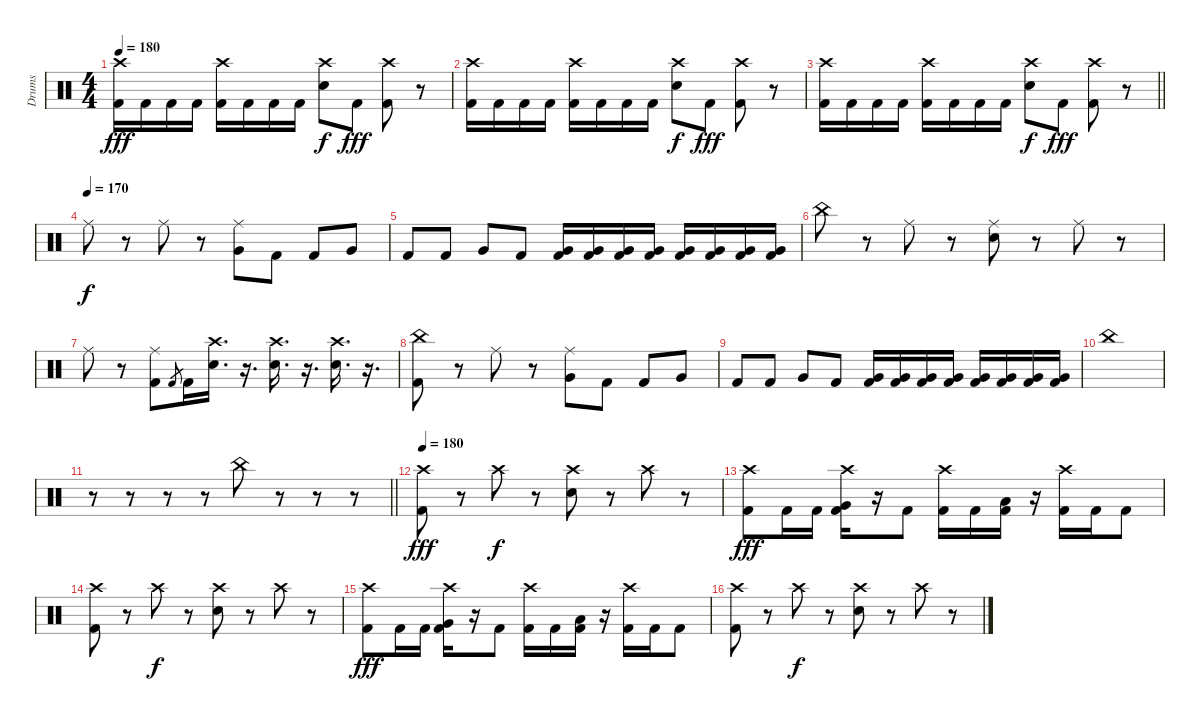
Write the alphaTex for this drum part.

\track ("Drums" "Drums") {instrument percussion}
\staff {score}
\articulation defaults
\ts (4 4)
\tempo 180
\clef neutral
\ks c
("Crash high (hit)" "Kick (hit) 2").16{dy fff} "Kick (hit) 2".16 "Kick (hit) 2".16 "Kick (hit) 2".16 ("Crash high (hit)" "Kick (hit) 2").16 "Kick (hit) 2".16 "Kick (hit) 2".16 "Kick (hit) 2".16 ("Crash high (hit)" "Electric Snare (hit)").8{dy f} "Kick (hit) 2".8{dy fff} ("Crash high (hit)" "Kick (hit) 2").8 r.8 |
("Crash high (hit)" "Kick (hit) 2").16 "Kick (hit) 2".16 "Kick (hit) 2".16 "Kick (hit) 2".16 ("Crash high (hit)" "Kick (hit) 2").16 "Kick (hit) 2".16 "Kick (hit) 2".16 "Kick (hit) 2".16 ("Crash high (hit)" "Electric Snare (hit)").8{dy f} "Kick (hit) 2".8{dy fff} ("Crash high (hit)" "Kick (hit) 2").8 r.8 |
\barLineRight lightlight
("Crash high (hit)" "Kick (hit) 2").16 "Kick (hit) 2".16 "Kick (hit) 2".16 "Kick (hit) 2".16 ("Crash high (hit)" "Kick (hit) 2").16 "Kick (hit) 2".16 "Kick (hit) 2".16 "Kick (hit) 2".16 ("Crash high (hit)" "Electric Snare (hit)").8{dy f} "Kick (hit) 2".8{dy fff} ("Crash high (hit)" "Kick (hit) 2").8 r.8 |
\section ("" "")
\tempo (170)
"Ride (middle)".8{dy f} r.8 "Ride (middle)".8 r.8 ("Ride (middle)" "Very Low Tom (hit)").8 "Kick (hit) 2".8 "Kick (hit) 2".8 "Very Low Tom (hit)".8 |
"Kick (hit) 2".8 "Kick (hit) 2".8 "Very Low Tom (hit)".8 "Kick (hit) 2".8 ("Very Low Tom (hit)" "Kick (hit) 2").16 ("Very Low Tom (hit)" "Kick (hit) 2").16 ("Very Low Tom (hit)" "Kick (hit) 2").16 ("Very Low Tom (hit)" "Kick (hit) 2").16 ("Very Low Tom (hit)" "Kick (hit) 2").16 ("Very Low Tom (hit)" "Kick (hit) 2").16 ("Very Low Tom (hit)" "Kick (hit) 2").16 ("Very Low Tom (hit)" "Kick (hit) 2").16 |
"China (hit)".8 r.8 "Ride (middle)".8 r.8 ("Ride (middle)" "Electric Snare (hit)").8 r.8 "Ride (middle)".8 r.8 |
"Ride (middle)".8 r.8 ("Ride (middle)" "Kick (hit) 2").8 "Kick (hit) 2".8{gr} "Kick (hit) 2".16 ("Crash high (hit)" "Electric Snare (hit)").16{d} r.16{d} ("Crash high (hit)" "Electric Snare (hit)").16{d} r.16{d} ("Crash high (hit)" "Electric Snare (hit)").16{d} r.16{d} |
("China (hit)" "Kick (hit) 2").8 r.8 "Ride (middle)".8 r.8 ("Ride (middle)" "Very Low Tom (hit)").8 "Kick (hit) 2".8 "Kick (hit) 2".8 "Very Low Tom (hit)".8 |
"Kick (hit) 2".8 "Kick (hit) 2".8 "Very Low Tom (hit)".8 "Kick (hit) 2".8 ("Very Low Tom (hit)" "Kick (hit) 2").16 ("Very Low Tom (hit)" "Kick (hit) 2").16 ("Very Low Tom (hit)" "Kick (hit) 2").16 ("Very Low Tom (hit)" "Kick (hit) 2").16 ("Very Low Tom (hit)" "Kick (hit) 2").16 ("Very Low Tom (hit)" "Kick (hit) 2").16 ("Very Low Tom (hit)" "Kick (hit) 2").16 ("Very Low Tom (hit)" "Kick (hit) 2").16 |
"China (hit)".1 |
\barLineRight lightlight
r.8 r.8 r.8 r.8 "China (hit)".8 r.8 r.8 r.8 |
\section ("" "")
\tempo 180
("Crash high (hit)" "Kick (hit) 2").8{dy fff volume 12} r.8 "Crash high (hit)".8{dy f} r.8 ("Crash high (hit)" "Electric Snare (hit)").8 r.8 "Crash high (hit)".8 r.8 |
("Crash high (hit)" "Kick (hit) 2").8{dy fff} "Kick (hit) 2".16 "Kick (hit) 2".16 ("Crash high (hit)" "Very Low Tom (hit)" "Kick (hit) 2").16 r.16 "Kick (hit) 2".8 ("Crash high (hit)" "Kick (hit) 2").16 "Kick (hit) 2".16 ("Low Floor Tom (hit)" "Kick (hit) 2").16 r.16 ("Crash high (hit)" "Kick (hit) 2").16 "Kick (hit) 2".16 "Kick (hit) 2".8 |
("Crash high (hit)" "Kick (hit) 2").8 r.8 "Crash high (hit)".8{dy f} r.8 ("Crash high (hit)" "Electric Snare (hit)").8 r.8 "Crash high (hit)".8 r.8 |
("Crash high (hit)" "Kick (hit) 2").8{dy fff} "Kick (hit) 2".16 "Kick (hit) 2".16 ("Crash high (hit)" "Very Low Tom (hit)" "Kick (hit) 2").16 r.16 "Kick (hit) 2".8 ("Crash high (hit)" "Kick (hit) 2").16 "Kick (hit) 2".16 ("Low Floor Tom (hit)" "Kick (hit) 2").16 r.16 ("Crash high (hit)" "Kick (hit) 2").16 "Kick (hit) 2".16 "Kick (hit) 2".8 |
("Crash high (hit)" "Kick (hit) 2").8 r.8 "Crash high (hit)".8{dy f} r.8 ("Crash high (hit)" "Electric Snare (hit)").8 r.8 "Crash high (hit)".8 r.8
